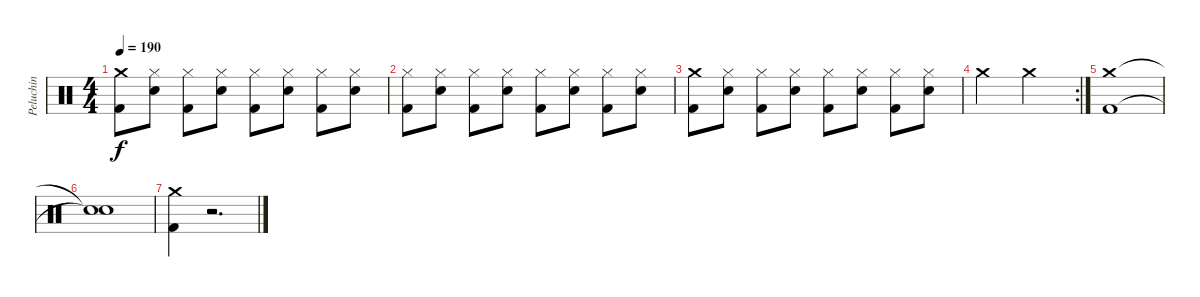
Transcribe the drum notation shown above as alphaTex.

\track ("Peluchin" "Peluchin") {instrument percussion}
\staff {score}
\articulation defaults
\ts (4 4)
\tempo 190
\clef neutral
\ks c
("Kick (hit) 2" "Crash medium (hit)").8{dy f} ("Electric Snare (hit)" "Hi-Hat (closed)").8 ("Kick (hit) 2" "Hi-Hat (closed)").8 ("Electric Snare (hit)" "Hi-Hat (closed)").8 ("Kick (hit) 2" "Hi-Hat (closed)").8 ("Electric Snare (hit)" "Hi-Hat (closed)").8 ("Kick (hit) 2" "Hi-Hat (closed)").8 ("Electric Snare (hit)" "Hi-Hat (closed)").8 |
("Kick (hit) 2" "Hi-Hat (closed)").8 ("Electric Snare (hit)" "Hi-Hat (closed)").8 ("Kick (hit) 2" "Hi-Hat (closed)").8 ("Electric Snare (hit)" "Hi-Hat (closed)").8 ("Kick (hit) 2" "Hi-Hat (closed)").8 ("Electric Snare (hit)" "Hi-Hat (closed)").8 ("Kick (hit) 2" "Hi-Hat (closed)").8 ("Electric Snare (hit)" "Hi-Hat (closed)").8 |
("Kick (hit) 2" "Crash medium (hit)").8 ("Electric Snare (hit)" "Hi-Hat (closed)").8 ("Kick (hit) 2" "Hi-Hat (closed)").8 ("Electric Snare (hit)" "Hi-Hat (closed)").8 ("Kick (hit) 2" "Hi-Hat (closed)").8 ("Electric Snare (hit)" "Hi-Hat (closed)").8 ("Kick (hit) 2" "Hi-Hat (closed)").8 ("Electric Snare (hit)" "Hi-Hat (closed)").8 |
\rc 2 "Crash medium (hit)".2 "Crash medium (hit)".2
|
("Kick (hit) 2" "Crash medium (hit)").1 |
("Snare (hit)"{t} "Snare (hit)"{t}).1 |
("Crash medium (hit)" "Kick (hit) 2").4 r.2{d}
